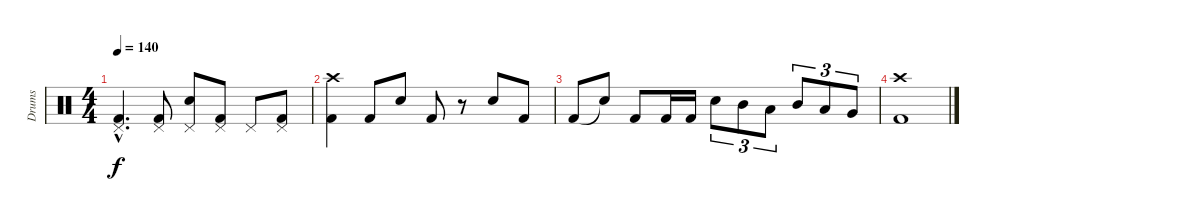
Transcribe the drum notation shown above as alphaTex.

\track ("Drums" "Drums") {instrument percussion}
\staff {score}
\articulation defaults
\ts (4 4)
\tempo 140
\clef neutral
\ks c
("Pedal Hi-Hat (hit)"{hac} "Kick (hit) 2"{hac}).4{d dy f} ("Pedal Hi-Hat (hit)" "Kick (hit) 2").8 ("Pedal Hi-Hat (hit)" "Electric Snare (hit)").8 ("Pedal Hi-Hat (hit)" "Kick (hit) 2").8 "Pedal Hi-Hat (hit)".8 ("Pedal Hi-Hat (hit)" "Kick (hit) 2").8 |
("Crash high (hit)" "Kick (hit) 2").4 "Kick (hit) 2".8 "Electric Snare (hit)".8 "Kick (hit) 2".8 r.8 "Electric Snare (hit)".8 "Kick (hit) 2".8 |
"Kick (hit) 2".8 "Snare (hit)"{t}.8 "Kick (hit) 2".8 "Kick (hit) 2".16 "Kick (hit) 2".16 "Electric Snare (hit)".8{tu (3 2)} "Mid Tom (hit)".8{tu (3 2)} "Low Tom (hit)".8{tu (3 2)} "Mid Tom (hit)".8{tu (3 2)} "Low Tom (hit)".8{tu (3 2)} "Very Low Tom (hit)".8{tu (3 2)} |
("Crash high (hit)" "Kick (hit) 2").1
